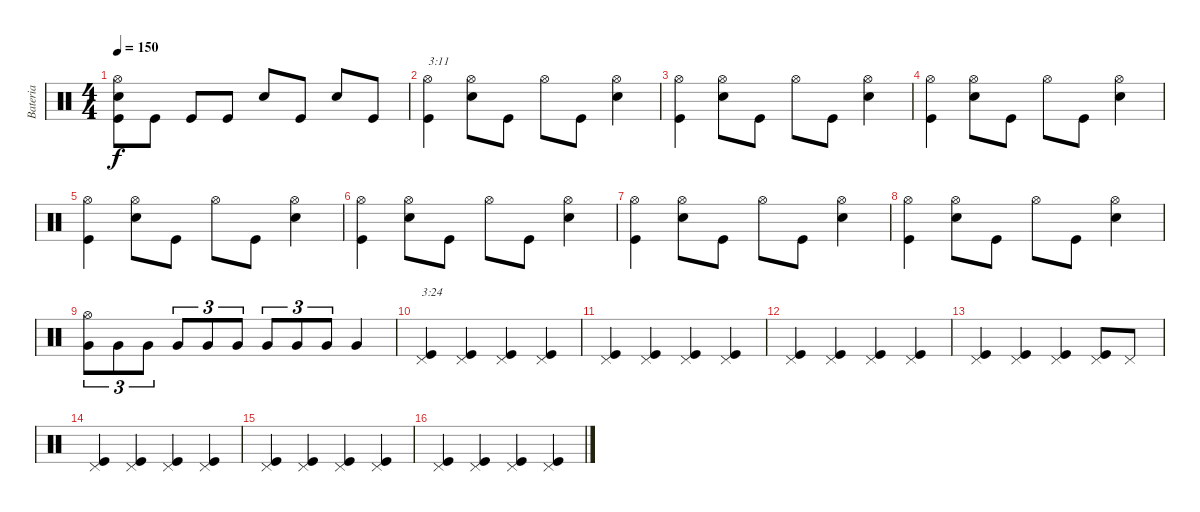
\track ("Bateria" "Bateria") {instrument percussion}
\staff {score}
\articulation defaults
\ts (4 4)
\tempo 150
\clef neutral
\ks c
("Kick (hit)" "Snare (hit) 2" "Hi-Hat (open)").8{dy f} "Kick (hit)".8 "Kick (hit)".8 "Kick (hit)".8 "Snare (hit) 2".8 "Kick (hit)".8 "Snare (hit) 2".8 "Kick (hit)".8 |
("Kick (hit)" "Hi-Hat (open)").4{txt "3:11"} ("Snare (hit) 2" "Hi-Hat (open)").8 "Kick (hit)".8 "Hi-Hat (open)".8 "Kick (hit)".8 ("Snare (hit) 2" "Hi-Hat (open)").4 |
("Kick (hit)" "Hi-Hat (open)").4 ("Snare (hit) 2" "Hi-Hat (open)").8 "Kick (hit)".8 "Hi-Hat (open)".8 "Kick (hit)".8 ("Snare (hit) 2" "Hi-Hat (open)").4 |
("Kick (hit)" "Hi-Hat (open)").4 ("Snare (hit) 2" "Hi-Hat (open)").8 "Kick (hit)".8 "Hi-Hat (open)".8 "Kick (hit)".8 ("Snare (hit) 2" "Hi-Hat (open)").4 |
("Kick (hit)" "Hi-Hat (open)").4 ("Snare (hit) 2" "Hi-Hat (open)").8 "Kick (hit)".8 "Hi-Hat (open)".8 "Kick (hit)".8 ("Snare (hit) 2" "Hi-Hat (open)").4 |
("Kick (hit)" "Hi-Hat (open)").4 ("Snare (hit) 2" "Hi-Hat (open)").8 "Kick (hit)".8 "Hi-Hat (open)".8 "Kick (hit)".8 ("Snare (hit) 2" "Hi-Hat (open)").4 |
("Kick (hit)" "Hi-Hat (open)").4 ("Snare (hit) 2" "Hi-Hat (open)").8 "Kick (hit)".8 "Hi-Hat (open)".8 "Kick (hit)".8 ("Snare (hit) 2" "Hi-Hat (open)").4 |
("Kick (hit)" "Hi-Hat (open)").4 ("Snare (hit) 2" "Hi-Hat (open)").8 "Kick (hit)".8 "Hi-Hat (open)".8 "Kick (hit)".8 ("Snare (hit) 2" "Hi-Hat (open)").4 |
("Very Low Tom (hit)" "Hi-Hat (open)").8{tu (3 2)} "Very Low Tom (hit)".8{tu (3 2)} "Very Low Tom (hit)".8{tu (3 2)} "Very Low Tom (hit)".8{tu (3 2)} "Very Low Tom (hit)".8{tu (3 2)} "Very Low Tom (hit)".8{tu (3 2)} "Very Low Tom (hit)".8{tu (3 2)} "Very Low Tom (hit)".8{tu (3 2)} "Very Low Tom (hit)".8{tu (3 2)} "Very Low Tom (hit)".4 |
("Kick (hit)" "Pedal Hi-Hat (hit)").4{txt "3:24"} ("Kick (hit)" "Pedal Hi-Hat (hit)").4 ("Kick (hit)" "Pedal Hi-Hat (hit)").4 ("Kick (hit)" "Pedal Hi-Hat (hit)").4 |
("Kick (hit)" "Pedal Hi-Hat (hit)").4 ("Kick (hit)" "Pedal Hi-Hat (hit)").4 ("Kick (hit)" "Pedal Hi-Hat (hit)").4 ("Kick (hit)" "Pedal Hi-Hat (hit)").4 |
("Kick (hit)" "Pedal Hi-Hat (hit)").4 ("Kick (hit)" "Pedal Hi-Hat (hit)").4 ("Kick (hit)" "Pedal Hi-Hat (hit)").4 ("Kick (hit)" "Pedal Hi-Hat (hit)").4 |
("Kick (hit)" "Pedal Hi-Hat (hit)").4 ("Kick (hit)" "Pedal Hi-Hat (hit)").4 ("Kick (hit)" "Pedal Hi-Hat (hit)").4 ("Kick (hit)" "Pedal Hi-Hat (hit)").8 "Pedal Hi-Hat (hit)".8 |
("Kick (hit)" "Pedal Hi-Hat (hit)").4 ("Kick (hit)" "Pedal Hi-Hat (hit)").4 ("Kick (hit)" "Pedal Hi-Hat (hit)").4 ("Kick (hit)" "Pedal Hi-Hat (hit)").4 |
("Kick (hit)" "Pedal Hi-Hat (hit)").4 ("Kick (hit)" "Pedal Hi-Hat (hit)").4 ("Kick (hit)" "Pedal Hi-Hat (hit)").4 ("Kick (hit)" "Pedal Hi-Hat (hit)").4 |
("Kick (hit)" "Pedal Hi-Hat (hit)").4 ("Kick (hit)" "Pedal Hi-Hat (hit)").4 ("Kick (hit)" "Pedal Hi-Hat (hit)").4 ("Kick (hit)" "Pedal Hi-Hat (hit)").4
